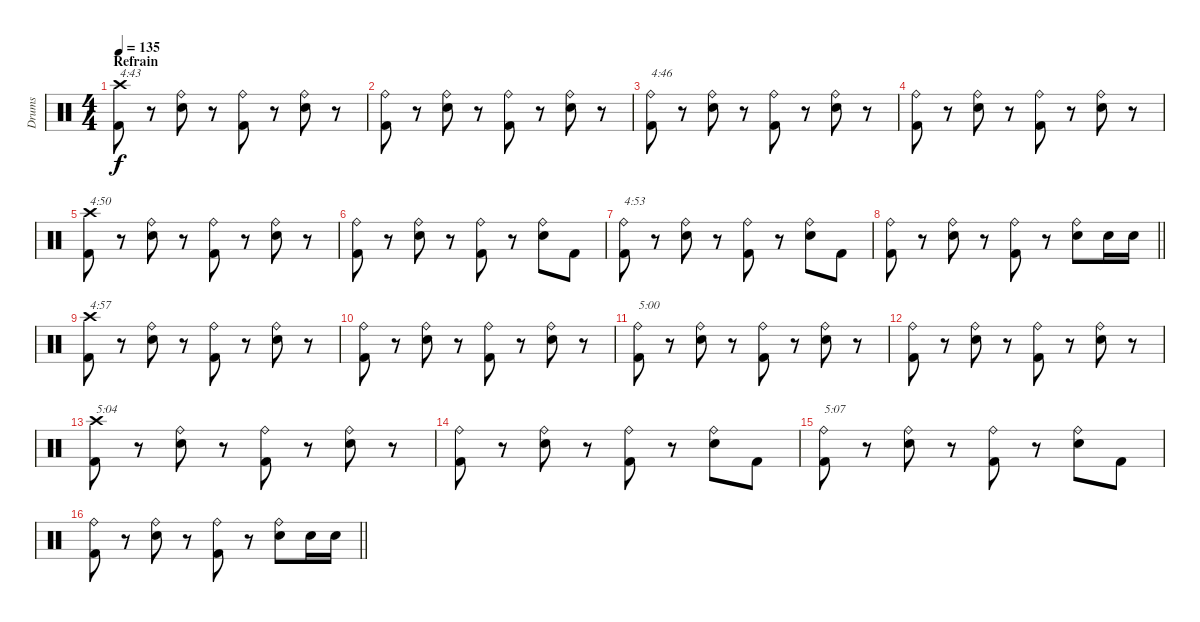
\track ("Drums" "Drums") {instrument percussion}
\staff {score}
\articulation defaults
\ts (4 4)
\section ("" "Refrain")
\tempo 135
\clef neutral
\ks c
("Crash high (hit)" "Kick (hit) 2").8{txt "4:43" dy f} r.8 ("Ride (bell)" "Electric Snare (hit)").8 r.8 ("Ride (bell)" "Kick (hit) 2").8 r.8 ("Ride (bell)" "Electric Snare (hit)").8 r.8 |
("Ride (bell)" "Kick (hit) 2").8 r.8 ("Ride (bell)" "Electric Snare (hit)").8 r.8 ("Ride (bell)" "Kick (hit) 2").8 r.8 ("Ride (bell)" "Electric Snare (hit)").8 r.8 |
("Ride (bell)" "Kick (hit) 2").8{txt "4:46"} r.8 ("Ride (bell)" "Electric Snare (hit)").8 r.8 ("Ride (bell)" "Kick (hit) 2").8 r.8 ("Ride (bell)" "Electric Snare (hit)").8 r.8 |
("Ride (bell)" "Kick (hit) 2").8 r.8 ("Ride (bell)" "Electric Snare (hit)").8 r.8 ("Ride (bell)" "Kick (hit) 2").8 r.8 ("Ride (bell)" "Electric Snare (hit)").8 r.8 |
("Crash high (hit)" "Kick (hit) 2").8{txt "4:50"} r.8 ("Ride (bell)" "Electric Snare (hit)").8 r.8 ("Ride (bell)" "Kick (hit) 2").8 r.8 ("Ride (bell)" "Electric Snare (hit)").8 r.8 |
("Ride (bell)" "Kick (hit) 2").8 r.8 ("Ride (bell)" "Electric Snare (hit)").8 r.8 ("Ride (bell)" "Kick (hit) 2").8 r.8 ("Ride (bell)" "Electric Snare (hit)").8 "Kick (hit) 2".8 |
("Ride (bell)" "Kick (hit) 2").8{txt "4:53"} r.8 ("Ride (bell)" "Electric Snare (hit)").8 r.8 ("Ride (bell)" "Kick (hit) 2").8 r.8 ("Ride (bell)" "Electric Snare (hit)").8 "Kick (hit) 2".8 |
\barLineRight lightlight
("Ride (bell)" "Kick (hit) 2").8 r.8 ("Ride (bell)" "Electric Snare (hit)").8 r.8 ("Ride (bell)" "Kick (hit) 2").8 r.8 ("Ride (bell)" "Electric Snare (hit)").8 "Electric Snare (hit)".16 "Electric Snare (hit)".16 |
("Crash high (hit)" "Kick (hit) 2").8{txt "4:57"} r.8 ("Ride (bell)" "Electric Snare (hit)").8 r.8 ("Ride (bell)" "Kick (hit) 2").8 r.8 ("Ride (bell)" "Electric Snare (hit)").8 r.8 |
("Ride (bell)" "Kick (hit) 2").8 r.8 ("Ride (bell)" "Electric Snare (hit)").8 r.8 ("Ride (bell)" "Kick (hit) 2").8 r.8 ("Ride (bell)" "Electric Snare (hit)").8 r.8 |
("Ride (bell)" "Kick (hit) 2").8{txt "5:00"} r.8 ("Ride (bell)" "Electric Snare (hit)").8 r.8 ("Ride (bell)" "Kick (hit) 2").8 r.8 ("Ride (bell)" "Electric Snare (hit)").8 r.8 |
("Ride (bell)" "Kick (hit) 2").8 r.8 ("Ride (bell)" "Electric Snare (hit)").8 r.8 ("Ride (bell)" "Kick (hit) 2").8 r.8 ("Ride (bell)" "Electric Snare (hit)").8 r.8 |
("Crash high (hit)" "Kick (hit) 2").8{txt "5:04"} r.8 ("Ride (bell)" "Electric Snare (hit)").8 r.8 ("Ride (bell)" "Kick (hit) 2").8 r.8 ("Ride (bell)" "Electric Snare (hit)").8 r.8 |
("Ride (bell)" "Kick (hit) 2").8 r.8 ("Ride (bell)" "Electric Snare (hit)").8 r.8 ("Ride (bell)" "Kick (hit) 2").8 r.8 ("Ride (bell)" "Electric Snare (hit)").8 "Kick (hit) 2".8 |
("Ride (bell)" "Kick (hit) 2").8{txt "5:07"} r.8 ("Ride (bell)" "Electric Snare (hit)").8 r.8 ("Ride (bell)" "Kick (hit) 2").8 r.8 ("Ride (bell)" "Electric Snare (hit)").8 "Kick (hit) 2".8 |
\barLineRight lightlight
("Ride (bell)" "Kick (hit) 2").8 r.8 ("Ride (bell)" "Electric Snare (hit)").8 r.8 ("Ride (bell)" "Kick (hit) 2").8 r.8 ("Ride (bell)" "Electric Snare (hit)").8 "Electric Snare (hit)".16 "Electric Snare (hit)".16
